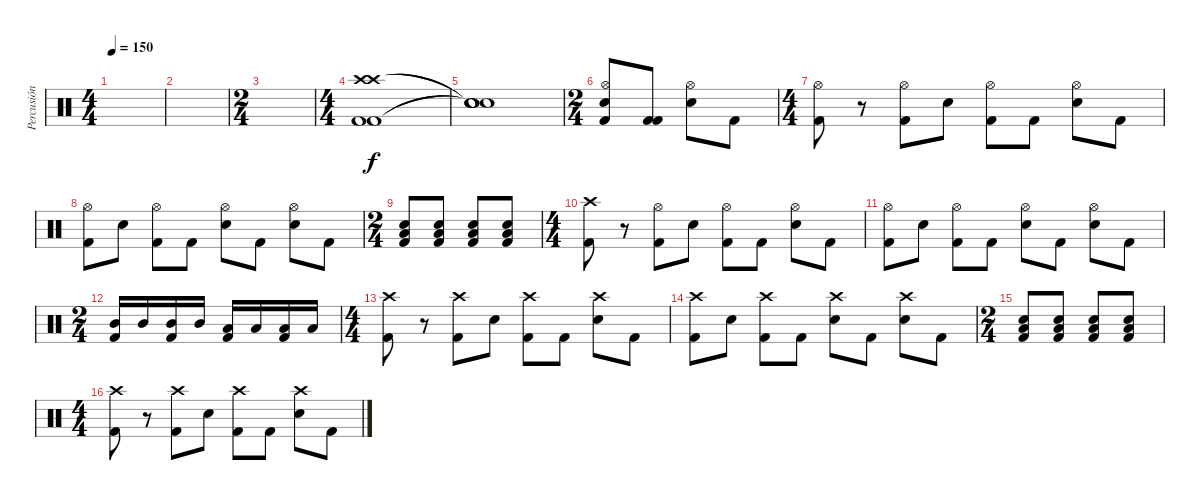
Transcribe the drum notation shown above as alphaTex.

\track ("Percusión" "Percusión") {instrument percussion}
\staff {score}
\articulation defaults
\ts (4 4)
\tempo 150
\clef neutral
\ks c
|
|
\ts (2 4)
|
\ts (4 4)
("Kick (hit) 2" "Crash high (hit)" "Crash high (hit)" "Kick (hit) 2").1 |
("Snare (hit)"{t} "Snare (hit)"{t} "Snare (hit)"{t} "Snare (hit)"{t}).1 |
\ts (2 4)
("Hi-Hat (open)" "Electric Snare (hit)" "Kick (hit) 2").8 ("Kick (hit) 2" "Kick (hit) 2").8 ("Hi-Hat (open)" "Electric Snare (hit)").8 "Kick (hit) 2".8 |
\ts (4 4)
("Hi-Hat (open)" "Kick (hit) 2").8 r.8 ("Hi-Hat (open)" "Kick (hit) 2").8 "Electric Snare (hit)".8 ("Hi-Hat (open)" "Kick (hit) 2").8 "Kick (hit) 2".8 ("Hi-Hat (open)" "Electric Snare (hit)").8 "Kick (hit) 2".8 |
("Hi-Hat (open)" "Kick (hit) 2").8 "Electric Snare (hit)".8 ("Hi-Hat (open)" "Kick (hit) 2").8 "Kick (hit) 2".8 ("Hi-Hat (open)" "Electric Snare (hit)").8 "Kick (hit) 2".8 ("Hi-Hat (open)" "Electric Snare (hit)").8 "Kick (hit) 2".8 |
\ts (2 4)
("Low Tom (hit)" "Electric Snare (hit)" "Kick (hit) 2").8 ("Low Tom (hit)" "Electric Snare (hit)" "Kick (hit) 2").8 ("Low Tom (hit)" "Electric Snare (hit)" "Kick (hit) 2").8 ("Low Tom (hit)" "Electric Snare (hit)" "Kick (hit) 2").8 |
\ts (4 4)
("Crash high (hit)" "Kick (hit) 2").8 r.8 ("Hi-Hat (open)" "Kick (hit) 2").8 "Electric Snare (hit)".8 ("Hi-Hat (open)" "Kick (hit) 2").8 "Kick (hit) 2".8 ("Hi-Hat (open)" "Electric Snare (hit)").8 "Kick (hit) 2".8 |
("Hi-Hat (open)" "Kick (hit) 2").8 "Electric Snare (hit)".8 ("Hi-Hat (open)" "Kick (hit) 2").8 "Kick (hit) 2".8 ("Hi-Hat (open)" "Electric Snare (hit)").8 "Kick (hit) 2".8 ("Hi-Hat (open)" "Electric Snare (hit)").8 "Kick (hit) 2".8 |
\ts (2 4)
("Mid Tom (hit)" "Kick (hit) 2").16 "Mid Tom (hit)".16 ("Mid Tom (hit)" "Kick (hit) 2").16 "Mid Tom (hit)".16 ("Low Tom (hit)" "Kick (hit) 2").16 "Low Tom (hit)".16 ("Low Tom (hit)" "Kick (hit) 2").16 "Low Tom (hit)".16 |
\ts (4 4)
("Crash high (hit)" "Kick (hit) 2").8 r.8 ("Crash high (hit)" "Kick (hit) 2").8 "Electric Snare (hit)".8 ("Crash high (hit)" "Kick (hit) 2").8 "Kick (hit) 2".8 ("Crash high (hit)" "Electric Snare (hit)").8 "Kick (hit) 2".8 |
("Crash high (hit)" "Kick (hit) 2").8 "Electric Snare (hit)".8 ("Crash high (hit)" "Kick (hit) 2").8 "Kick (hit) 2".8 ("Crash high (hit)" "Electric Snare (hit)").8 "Kick (hit) 2".8 ("Crash high (hit)" "Electric Snare (hit)").8 "Kick (hit) 2".8 |
\ts (2 4)
("Low Tom (hit)" "Electric Snare (hit)" "Kick (hit) 2").8 ("Low Tom (hit)" "Electric Snare (hit)" "Kick (hit) 2").8 ("Low Tom (hit)" "Electric Snare (hit)" "Kick (hit) 2").8 ("Low Tom (hit)" "Electric Snare (hit)" "Kick (hit) 2").8 |
\ts (4 4)
("Crash high (hit)" "Kick (hit) 2").8 r.8 ("Crash high (hit)" "Kick (hit) 2").8 "Electric Snare (hit)".8 ("Crash high (hit)" "Kick (hit) 2").8 "Kick (hit) 2".8 ("Crash high (hit)" "Electric Snare (hit)").8 "Kick (hit) 2".8
